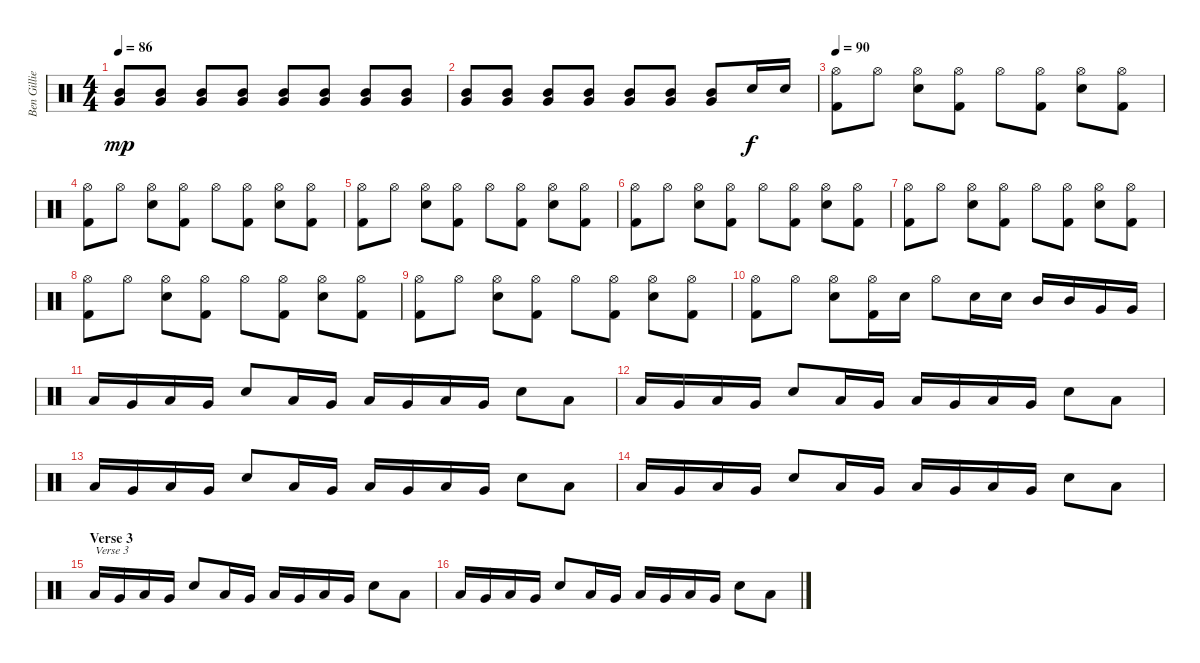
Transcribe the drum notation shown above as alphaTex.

\track ("Ben Gillies" "Ben Gillie") {instrument percussion}
\staff {score}
\articulation defaults
\ts (4 4)
\tempo 86
\clef neutral
\ks c
("Mid Tom (hit)" "Very Low Tom (hit)").8{dy mp} ("Mid Tom (hit)" "Very Low Tom (hit)").8 ("Mid Tom (hit)" "Very Low Tom (hit)").8 ("Mid Tom (hit)" "Very Low Tom (hit)").8 ("Mid Tom (hit)" "Very Low Tom (hit)").8 ("Mid Tom (hit)" "Very Low Tom (hit)").8 ("Mid Tom (hit)" "Very Low Tom (hit)").8 ("Mid Tom (hit)" "Very Low Tom (hit)").8 |
("Mid Tom (hit)" "Very Low Tom (hit)").8 ("Mid Tom (hit)" "Very Low Tom (hit)").8 ("Mid Tom (hit)" "Very Low Tom (hit)").8 ("Mid Tom (hit)" "Very Low Tom (hit)").8 ("Mid Tom (hit)" "Very Low Tom (hit)").8 ("Mid Tom (hit)" "Very Low Tom (hit)").8 ("Mid Tom (hit)" "Very Low Tom (hit)").8 "Electric Snare (hit)".16{dy f} "Electric Snare (hit)".16 |
\tempo 90
("Hi-Hat (open)" "Kick (hit) 2").8 "Hi-Hat (open)".8 ("Hi-Hat (open)" "Electric Snare (hit)").8 ("Hi-Hat (open)" "Kick (hit) 2").8 "Hi-Hat (open)".8 ("Hi-Hat (open)" "Kick (hit) 2").8 ("Hi-Hat (open)" "Electric Snare (hit)").8 ("Hi-Hat (open)" "Kick (hit) 2").8 |
("Hi-Hat (open)" "Kick (hit) 2").8 "Hi-Hat (open)".8 ("Hi-Hat (open)" "Electric Snare (hit)").8 ("Hi-Hat (open)" "Kick (hit) 2").8 "Hi-Hat (open)".8 ("Hi-Hat (open)" "Kick (hit) 2").8 ("Hi-Hat (open)" "Electric Snare (hit)").8 ("Hi-Hat (open)" "Kick (hit) 2").8 |
("Hi-Hat (open)" "Kick (hit) 2").8 "Hi-Hat (open)".8 ("Hi-Hat (open)" "Electric Snare (hit)").8 ("Hi-Hat (open)" "Kick (hit) 2").8 "Hi-Hat (open)".8 ("Hi-Hat (open)" "Kick (hit) 2").8 ("Hi-Hat (open)" "Electric Snare (hit)").8 ("Hi-Hat (open)" "Kick (hit) 2").8 |
("Hi-Hat (open)" "Kick (hit) 2").8 "Hi-Hat (open)".8 ("Hi-Hat (open)" "Electric Snare (hit)").8 ("Hi-Hat (open)" "Kick (hit) 2").8 "Hi-Hat (open)".8 ("Hi-Hat (open)" "Kick (hit) 2").8 ("Hi-Hat (open)" "Electric Snare (hit)").8 ("Hi-Hat (open)" "Kick (hit) 2").8 |
("Hi-Hat (open)" "Kick (hit) 2").8 "Hi-Hat (open)".8 ("Hi-Hat (open)" "Electric Snare (hit)").8 ("Hi-Hat (open)" "Kick (hit) 2").8 "Hi-Hat (open)".8 ("Hi-Hat (open)" "Kick (hit) 2").8 ("Hi-Hat (open)" "Electric Snare (hit)").8 ("Hi-Hat (open)" "Kick (hit) 2").8 |
("Hi-Hat (open)" "Kick (hit) 2").8 "Hi-Hat (open)".8 ("Hi-Hat (open)" "Electric Snare (hit)").8 ("Hi-Hat (open)" "Kick (hit) 2").8 "Hi-Hat (open)".8 ("Hi-Hat (open)" "Kick (hit) 2").8 ("Hi-Hat (open)" "Electric Snare (hit)").8 ("Hi-Hat (open)" "Kick (hit) 2").8 |
("Hi-Hat (open)" "Kick (hit) 2").8 "Hi-Hat (open)".8 ("Hi-Hat (open)" "Electric Snare (hit)").8 ("Hi-Hat (open)" "Kick (hit) 2").8 "Hi-Hat (open)".8 ("Hi-Hat (open)" "Kick (hit) 2").8 ("Hi-Hat (open)" "Electric Snare (hit)").8 ("Hi-Hat (open)" "Kick (hit) 2").8 |
("Hi-Hat (open)" "Kick (hit) 2").8 "Hi-Hat (open)".8 ("Hi-Hat (open)" "Electric Snare (hit)").8 ("Hi-Hat (open)" "Kick (hit) 2").16 "Electric Snare (hit)".16 "Hi-Hat (open)".8 "Electric Snare (hit)".16 "Electric Snare (hit)".16 "Mid Tom (hit)".16 "Mid Tom (hit)".16 "Very Low Tom (hit)".16 "Very Low Tom (hit)".16 |
"Low Floor Tom (hit)".16 "Very Low Tom (hit)".16 "Low Floor Tom (hit)".16 "Very Low Tom (hit)".16 "Electric Snare (hit)".8 "Low Floor Tom (hit)".16 "Very Low Tom (hit)".16 "Low Floor Tom (hit)".16 "Very Low Tom (hit)".16 "Low Floor Tom (hit)".16 "Very Low Tom (hit)".16 "Electric Snare (hit)".8 "Low Floor Tom (hit)".8 |
"Low Floor Tom (hit)".16 "Very Low Tom (hit)".16 "Low Floor Tom (hit)".16 "Very Low Tom (hit)".16 "Electric Snare (hit)".8 "Low Floor Tom (hit)".16 "Very Low Tom (hit)".16 "Low Floor Tom (hit)".16 "Very Low Tom (hit)".16 "Low Floor Tom (hit)".16 "Very Low Tom (hit)".16 "Electric Snare (hit)".8 "Low Floor Tom (hit)".8 |
"Low Floor Tom (hit)".16 "Very Low Tom (hit)".16 "Low Floor Tom (hit)".16 "Very Low Tom (hit)".16 "Electric Snare (hit)".8 "Low Floor Tom (hit)".16 "Very Low Tom (hit)".16 "Low Floor Tom (hit)".16 "Very Low Tom (hit)".16 "Low Floor Tom (hit)".16 "Very Low Tom (hit)".16 "Electric Snare (hit)".8 "Low Floor Tom (hit)".8 |
"Low Floor Tom (hit)".16 "Very Low Tom (hit)".16 "Low Floor Tom (hit)".16 "Very Low Tom (hit)".16 "Electric Snare (hit)".8 "Low Floor Tom (hit)".16 "Very Low Tom (hit)".16 "Low Floor Tom (hit)".16 "Very Low Tom (hit)".16 "Low Floor Tom (hit)".16 "Very Low Tom (hit)".16 "Electric Snare (hit)".8 "Low Floor Tom (hit)".8 |
\section ("" "Verse 3")
"Low Floor Tom (hit)".16{txt "Verse 3"} "Very Low Tom (hit)".16 "Low Floor Tom (hit)".16 "Very Low Tom (hit)".16 "Electric Snare (hit)".8 "Low Floor Tom (hit)".16 "Very Low Tom (hit)".16 "Low Floor Tom (hit)".16 "Very Low Tom (hit)".16 "Low Floor Tom (hit)".16 "Very Low Tom (hit)".16 "Electric Snare (hit)".8 "Low Floor Tom (hit)".8 |
"Low Floor Tom (hit)".16 "Very Low Tom (hit)".16 "Low Floor Tom (hit)".16 "Very Low Tom (hit)".16 "Electric Snare (hit)".8 "Low Floor Tom (hit)".16 "Very Low Tom (hit)".16 "Low Floor Tom (hit)".16 "Very Low Tom (hit)".16 "Low Floor Tom (hit)".16 "Very Low Tom (hit)".16 "Electric Snare (hit)".8 "Low Floor Tom (hit)".8
